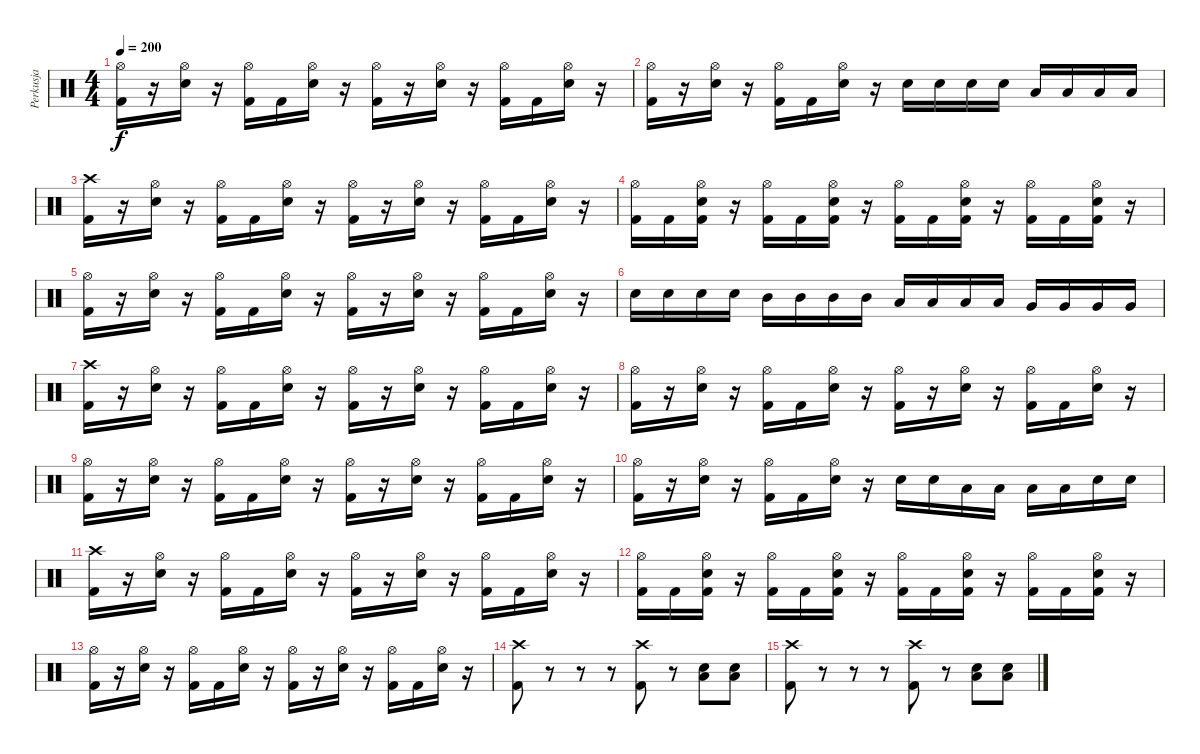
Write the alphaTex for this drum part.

\track ("Perkusja" "Perkusja") {instrument percussion}
\staff {score}
\articulation defaults
\ts (4 4)
\tempo 200
\clef neutral
\ks c
("Hi-Hat (open)" "Kick (hit) 2").16{dy f} r.16 ("Hi-Hat (open)" "Snare (hit) 2").16 r.16 ("Hi-Hat (open)" "Kick (hit) 2").16 "Kick (hit) 2".16 ("Hi-Hat (open)" "Snare (hit) 2").16 r.16 ("Hi-Hat (open)" "Kick (hit) 2").16 r.16 ("Hi-Hat (open)" "Snare (hit) 2").16 r.16 ("Hi-Hat (open)" "Kick (hit) 2").16 "Kick (hit) 2".16 ("Hi-Hat (open)" "Snare (hit) 2").16 r.16 |
("Hi-Hat (open)" "Kick (hit) 2").16 r.16 ("Hi-Hat (open)" "Snare (hit) 2").16 r.16 ("Hi-Hat (open)" "Kick (hit) 2").16 "Kick (hit) 2".16 ("Hi-Hat (open)" "Snare (hit) 2").16 r.16 "Snare (hit) 2".16 "Snare (hit) 2".16 "Snare (hit) 2".16 "Snare (hit) 2".16 "Low Tom (hit)".16 "Low Tom (hit)".16 "Low Floor Tom (hit)".16 "Low Floor Tom (hit)".16 |
("Crash high (hit)" "Kick (hit) 2").16 r.16 ("Hi-Hat (open)" "Snare (hit) 2").16 r.16 ("Hi-Hat (open)" "Kick (hit) 2").16 "Kick (hit) 2".16 ("Hi-Hat (open)" "Snare (hit) 2").16 r.16 ("Hi-Hat (open)" "Kick (hit) 2").16 r.16 ("Hi-Hat (open)" "Snare (hit) 2").16 r.16 ("Hi-Hat (open)" "Kick (hit) 2").16 "Kick (hit) 2".16 ("Hi-Hat (open)" "Snare (hit) 2").16 r.16 |
("Hi-Hat (open)" "Kick (hit) 2").16 "Kick (hit) 2".16 ("Hi-Hat (open)" "Snare (hit) 2" "Kick (hit) 2").16 r.16 ("Hi-Hat (open)" "Kick (hit) 2").16 "Kick (hit) 2".16 ("Hi-Hat (open)" "Snare (hit) 2" "Kick (hit) 2").16 r.16 ("Hi-Hat (open)" "Kick (hit) 2").16 "Kick (hit) 2".16 ("Hi-Hat (open)" "Snare (hit) 2" "Kick (hit) 2").16 r.16 ("Hi-Hat (open)" "Kick (hit) 2").16 "Kick (hit) 2".16 ("Hi-Hat (open)" "Snare (hit) 2" "Kick (hit) 2").16 r.16 |
("Hi-Hat (open)" "Kick (hit) 2").16 r.16 ("Hi-Hat (open)" "Snare (hit) 2").16 r.16 ("Hi-Hat (open)" "Kick (hit) 2").16 "Kick (hit) 2".16 ("Hi-Hat (open)" "Snare (hit) 2").16 r.16 ("Hi-Hat (open)" "Kick (hit) 2").16 r.16 ("Hi-Hat (open)" "Snare (hit) 2").16 r.16 ("Hi-Hat (open)" "Kick (hit) 2").16 "Kick (hit) 2".16 ("Hi-Hat (open)" "Snare (hit) 2").16 r.16 |
"Snare (hit) 2".16 "Snare (hit) 2".16 "Snare (hit) 2".16 "Snare (hit) 2".16 "Mid Tom (hit)".16 "Mid Tom (hit)".16 "Mid Tom (hit)".16 "Mid Tom (hit)".16 "Low Tom (hit)".16 "Low Tom (hit)".16 "Low Tom (hit)".16 "Low Tom (hit)".16 "Very Low Tom (hit)".16 "Very Low Tom (hit)".16 "Very Low Tom (hit)".16 "Very Low Tom (hit)".16 |
("Crash high (hit)" "Kick (hit) 2").16 r.16 ("Hi-Hat (open)" "Snare (hit) 2").16 r.16 ("Hi-Hat (open)" "Kick (hit) 2").16 "Kick (hit) 2".16 ("Hi-Hat (open)" "Snare (hit) 2").16 r.16 ("Hi-Hat (open)" "Kick (hit) 2").16 r.16 ("Hi-Hat (open)" "Snare (hit) 2").16 r.16 ("Hi-Hat (open)" "Kick (hit) 2").16 "Kick (hit) 2".16 ("Hi-Hat (open)" "Snare (hit) 2").16 r.16 |
("Hi-Hat (open)" "Kick (hit) 2").16 r.16 ("Hi-Hat (open)" "Snare (hit) 2").16 r.16 ("Hi-Hat (open)" "Kick (hit) 2").16 "Kick (hit) 2".16 ("Hi-Hat (open)" "Snare (hit) 2").16 r.16 ("Hi-Hat (open)" "Kick (hit) 2").16 r.16 ("Hi-Hat (open)" "Snare (hit) 2").16 r.16 ("Hi-Hat (open)" "Kick (hit) 2").16 "Kick (hit) 2".16 ("Hi-Hat (open)" "Snare (hit) 2").16 r.16 |
("Hi-Hat (open)" "Kick (hit) 2").16 r.16 ("Hi-Hat (open)" "Snare (hit) 2").16 r.16 ("Hi-Hat (open)" "Kick (hit) 2").16 "Kick (hit) 2".16 ("Hi-Hat (open)" "Snare (hit) 2").16 r.16 ("Hi-Hat (open)" "Kick (hit) 2").16 r.16 ("Hi-Hat (open)" "Snare (hit) 2").16 r.16 ("Hi-Hat (open)" "Kick (hit) 2").16 "Kick (hit) 2".16 ("Hi-Hat (open)" "Snare (hit) 2").16 r.16 |
("Hi-Hat (open)" "Kick (hit) 2").16 r.16 ("Hi-Hat (open)" "Snare (hit) 2").16 r.16 ("Hi-Hat (open)" "Kick (hit) 2").16 "Kick (hit) 2".16 ("Hi-Hat (open)" "Snare (hit) 2").16 r.16 "Snare (hit) 2".16 "Snare (hit) 2".16 "Low Tom (hit)".16 "Low Tom (hit)".16 "Low Tom (hit)".16 "Low Tom (hit)".16 "Snare (hit) 2".16 "Snare (hit) 2".16 |
("Crash high (hit)" "Kick (hit) 2").16 r.16 ("Hi-Hat (open)" "Snare (hit) 2").16 r.16 ("Hi-Hat (open)" "Kick (hit) 2").16 "Kick (hit) 2".16 ("Hi-Hat (open)" "Snare (hit) 2").16 r.16 ("Hi-Hat (open)" "Kick (hit) 2").16 r.16 ("Hi-Hat (open)" "Snare (hit) 2").16 r.16 ("Hi-Hat (open)" "Kick (hit) 2").16 "Kick (hit) 2".16 ("Hi-Hat (open)" "Snare (hit) 2").16 r.16 |
("Hi-Hat (open)" "Kick (hit) 2").16 "Kick (hit) 2".16 ("Hi-Hat (open)" "Snare (hit) 2" "Kick (hit) 2").16 r.16 ("Hi-Hat (open)" "Kick (hit) 2").16 "Kick (hit) 2".16 ("Hi-Hat (open)" "Snare (hit) 2" "Kick (hit) 2").16 r.16 ("Hi-Hat (open)" "Kick (hit) 2").16 "Kick (hit) 2".16 ("Hi-Hat (open)" "Snare (hit) 2" "Kick (hit) 2").16 r.16 ("Hi-Hat (open)" "Kick (hit) 2").16 "Kick (hit) 2".16 ("Hi-Hat (open)" "Snare (hit) 2" "Kick (hit) 2").16 r.16 |
("Hi-Hat (open)" "Kick (hit) 2").16 r.16 ("Hi-Hat (open)" "Snare (hit) 2").16 r.16 ("Hi-Hat (open)" "Kick (hit) 2").16 "Kick (hit) 2".16 ("Hi-Hat (open)" "Snare (hit) 2").16 r.16 ("Hi-Hat (open)" "Kick (hit) 2").16 r.16 ("Hi-Hat (open)" "Snare (hit) 2").16 r.16 ("Hi-Hat (open)" "Kick (hit) 2").16 "Kick (hit) 2".16 ("Hi-Hat (open)" "Snare (hit) 2").16 r.16 |
("Crash high (hit)" "Kick (hit) 2").8 r.8 r.8 r.8 ("Crash high (hit)" "Kick (hit) 2").8 r.8 ("Snare (hit) 2" "Low Floor Tom (hit)").8 ("Snare (hit) 2" "Low Floor Tom (hit)").8 |
("Crash high (hit)" "Kick (hit) 2").8 r.8 r.8 r.8 ("Crash high (hit)" "Kick (hit) 2").8 r.8 ("Snare (hit) 2" "Low Floor Tom (hit)").8 ("Snare (hit) 2" "Low Floor Tom (hit)").8
